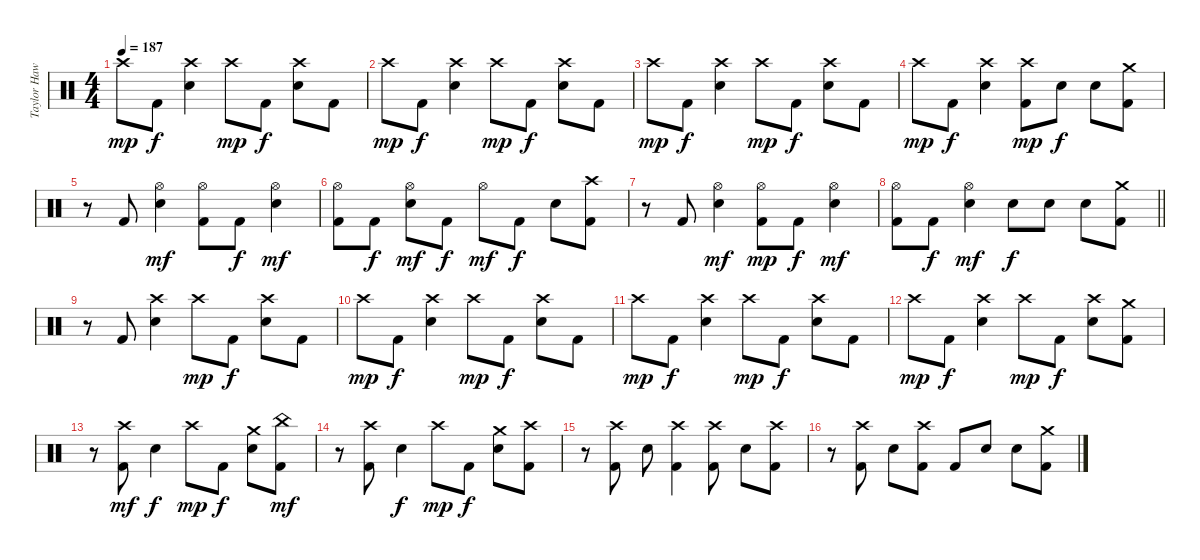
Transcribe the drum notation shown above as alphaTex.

\track ("Taylor Hawkins" "Taylor Haw") {instrument percussion}
\staff {score}
\articulation defaults
\ts (4 4)
\tempo 187
\clef neutral
\ks c "Crash high (hit)".8{dy mp} "Kick (hit) 2".8{dy f}
("Crash high (hit)" "Snare (hit) 2").4 "Crash high (hit)".8{dy mp} "Kick (hit) 2".8{dy f} ("Crash high (hit)" "Snare (hit) 2").8 "Kick (hit) 2".8 |
"Crash high (hit)".8{dy mp} "Kick (hit) 2".8{dy f} ("Crash high (hit)" "Snare (hit) 2").4 "Crash high (hit)".8{dy mp} "Kick (hit) 2".8{dy f} ("Crash high (hit)" "Snare (hit) 2").8 "Kick (hit) 2".8 |
"Crash high (hit)".8{dy mp} "Kick (hit) 2".8{dy f} ("Crash high (hit)" "Snare (hit) 2").4 "Crash high (hit)".8{dy mp} "Kick (hit) 2".8{dy f} ("Crash high (hit)" "Snare (hit) 2").8 "Kick (hit) 2".8 |
"Crash high (hit)".8{dy mp} "Kick (hit) 2".8{dy f} ("Crash high (hit)" "Snare (hit) 2").4 ("Crash high (hit)" "Kick (hit) 2").8{dy mp} "Snare (hit) 2".8{dy f} "Snare (hit) 2".8 ("Crash medium (hit)" "Kick (hit) 2").8 |
r.8 "Kick (hit) 2".8 ("Hi-Hat (open)" "Snare (hit) 2").4{dy mf} ("Hi-Hat (open)" "Kick (hit) 2").8 "Kick (hit) 2".8{dy f} ("Hi-Hat (open)" "Snare (hit) 2").4{dy mf} |
("Hi-Hat (open)" "Kick (hit) 2").8 "Kick (hit) 2".8{dy f} ("Hi-Hat (open)" "Snare (hit) 2").8{dy mf} "Kick (hit) 2".8{dy f} "Hi-Hat (open)".8{dy mf} "Kick (hit) 2".8{dy f} "Snare (hit) 2".8 ("Crash high (hit)" "Kick (hit) 2").8 |
r.8 "Kick (hit) 2".8 ("Hi-Hat (open)" "Snare (hit) 2").4{dy mf} ("Hi-Hat (open)" "Kick (hit) 2").8{dy mp} "Kick (hit) 2".8{dy f} ("Hi-Hat (open)" "Snare (hit) 2").4{dy mf} |
\barLineRight lightlight
("Hi-Hat (open)" "Kick (hit) 2").8 "Kick (hit) 2".8{dy f} ("Hi-Hat (open)" "Snare (hit) 2").4{dy mf} "Snare (hit) 2".8{dy f} "Snare (hit) 2".8 "Snare (hit) 2".8 ("Crash medium (hit)" "Kick (hit) 2").8 |
r.8 "Kick (hit) 2".8 ("Crash high (hit)" "Snare (hit) 2").4 "Crash high (hit)".8{dy mp} "Kick (hit) 2".8{dy f} ("Crash high (hit)" "Snare (hit) 2").8 "Kick (hit) 2".8 |
"Crash high (hit)".8{dy mp} "Kick (hit) 2".8{dy f} ("Crash high (hit)" "Snare (hit) 2").4 "Crash high (hit)".8{dy mp} "Kick (hit) 2".8{dy f} ("Crash high (hit)" "Snare (hit) 2").8 "Kick (hit) 2".8 |
"Crash high (hit)".8{dy mp} "Kick (hit) 2".8{dy f} ("Crash high (hit)" "Snare (hit) 2").4 "Crash high (hit)".8{dy mp} "Kick (hit) 2".8{dy f} ("Crash high (hit)" "Snare (hit) 2").8 "Kick (hit) 2".8 |
"Crash high (hit)".8{dy mp} "Kick (hit) 2".8{dy f} ("Crash high (hit)" "Snare (hit) 2").4 "Crash high (hit)".8{dy mp} "Kick (hit) 2".8{dy f} ("Crash high (hit)" "Snare (hit) 2").8 ("Crash medium (hit)" "Kick (hit) 2").8 |
r.8 ("Crash high (hit)" "Kick (hit) 2").8{dy mf} "Snare (hit) 2".4{dy f} "Crash high (hit)".8{dy mp} "Kick (hit) 2".8{dy f} ("Crash medium (hit)" "Snare (hit) 2").8 ("China (hit)" "Kick (hit) 2").8{dy mf} |
r.8 ("Crash high (hit)" "Kick (hit) 2").8 "Snare (hit) 2".4{dy f} "Crash high (hit)".8{dy mp} "Kick (hit) 2".8{dy f} ("Crash medium (hit)" "Snare (hit) 2").8 ("Crash high (hit)" "Kick (hit) 2").8 |
r.8 ("Crash high (hit)" "Kick (hit) 2").8 "Snare (hit) 2".8 ("Crash high (hit)" "Kick (hit) 2").4 ("Crash high (hit)" "Kick (hit) 2").8 "Snare (hit) 2".8 ("Crash high (hit)" "Kick (hit) 2").8 |
r.8 ("Crash high (hit)" "Kick (hit) 2").8 "Snare (hit) 2".8 ("Crash high (hit)" "Kick (hit) 2").8 "Kick (hit) 2".8 "Snare (hit) 2".8 "Snare (hit) 2".8 ("Crash medium (hit)" "Kick (hit) 2").8
